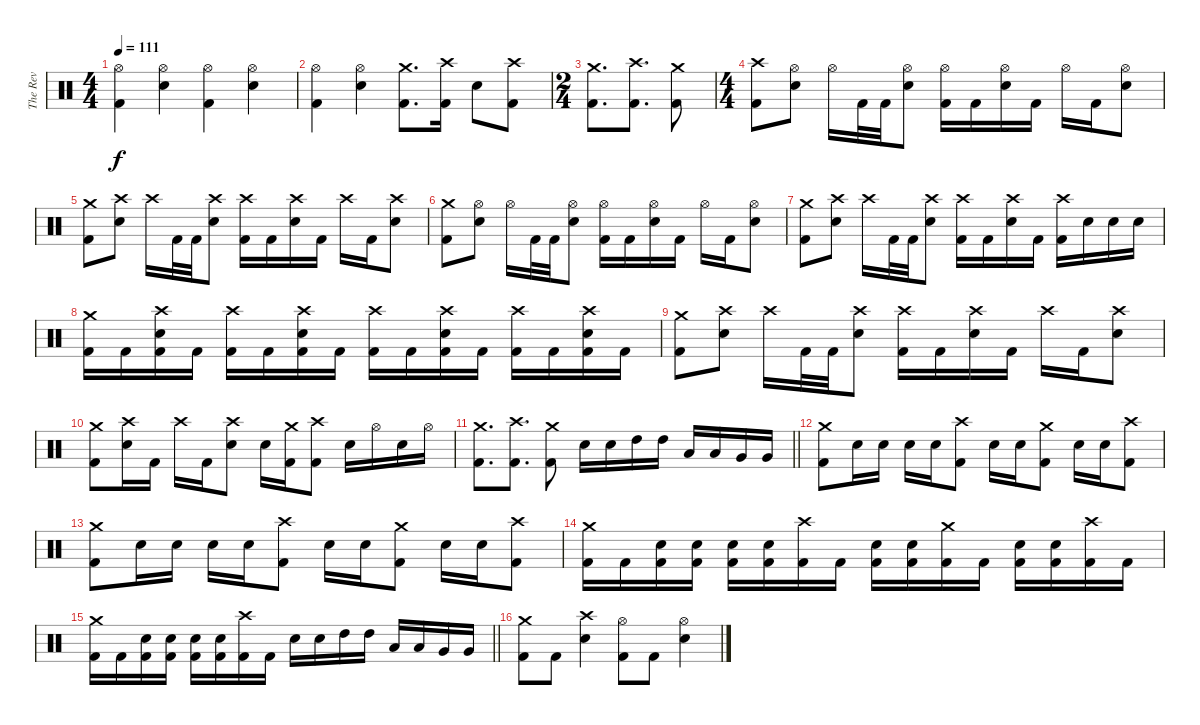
\track ("The Rev" "The Rev") {instrument percussion}
\staff {score}
\articulation defaults
\ts (4 4)
\tempo 111
\clef neutral
\ks c
("Hi-Hat (open)" "Kick (hit) 2").4{dy f} ("Hi-Hat (open)" "Snare (hit) 2").4 ("Hi-Hat (open)" "Kick (hit) 2").4 ("Hi-Hat (open)" "Snare (hit) 2").4 |
("Hi-Hat (open)" "Kick (hit) 2").4 ("Hi-Hat (open)" "Snare (hit) 2").4 ("Crash medium (hit)" "Kick (hit) 2").8{d} ("Crash high (hit)" "Kick (hit) 2").16 "Snare (hit) 2".8 ("Crash high (hit)" "Kick (hit) 2").8 |
\ts (2 4)
("Crash medium (hit)" "Kick (hit) 2").8{d} ("Crash high (hit)" "Kick (hit) 2").8{d} ("Crash medium (hit)" "Kick (hit) 2").8 |
\ts (4 4)
("Crash high (hit)" "Kick (hit) 2").8 ("Hi-Hat (open)" "Snare (hit) 2").8 "Hi-Hat (open)".16 "Kick (hit) 2".32 "Kick (hit) 2".32 ("Hi-Hat (open)" "Snare (hit) 2").8 ("Hi-Hat (open)" "Kick (hit) 2").16 "Kick (hit) 2".16 ("Hi-Hat (open)" "Snare (hit) 2").16 "Kick (hit) 2".16 "Hi-Hat (open)".16 "Kick (hit) 2".16 ("Hi-Hat (open)" "Snare (hit) 2").8 |
("Crash medium (hit)" "Kick (hit) 2").8 ("Crash high (hit)" "Snare (hit) 2").8 "Crash high (hit)".16 "Kick (hit) 2".32 "Kick (hit) 2".32 ("Crash high (hit)" "Snare (hit) 2").8 ("Crash high (hit)" "Kick (hit) 2").16 "Kick (hit) 2".16 ("Crash high (hit)" "Snare (hit) 2").16 "Kick (hit) 2".16 "Crash high (hit)".16 "Kick (hit) 2".16 ("Crash high (hit)" "Snare (hit) 2").8 |
("Crash medium (hit)" "Kick (hit) 2").8 ("Hi-Hat (open)" "Snare (hit) 2").8 "Hi-Hat (open)".16 "Kick (hit) 2".32 "Kick (hit) 2".32 ("Hi-Hat (open)" "Snare (hit) 2").8 ("Hi-Hat (open)" "Kick (hit) 2").16 "Kick (hit) 2".16 ("Hi-Hat (open)" "Snare (hit) 2").16 "Kick (hit) 2".16 "Hi-Hat (open)".16 "Kick (hit) 2".16 ("Hi-Hat (open)" "Snare (hit) 2").8 |
("Crash medium (hit)" "Kick (hit) 2").8 ("Crash high (hit)" "Snare (hit) 2").8 "Crash high (hit)".16 "Kick (hit) 2".32 "Kick (hit) 2".32 ("Crash high (hit)" "Snare (hit) 2").8 ("Crash high (hit)" "Kick (hit) 2").16 "Kick (hit) 2".16 ("Crash high (hit)" "Snare (hit) 2").16 "Kick (hit) 2".16 ("Crash high (hit)" "Kick (hit) 2").16 "Snare (hit) 2".16 "Snare (hit) 2".16 "Snare (hit) 2".16 |
("Crash medium (hit)" "Kick (hit) 2").16 "Kick (hit) 2".16 ("Crash high (hit)" "Snare (hit) 2" "Kick (hit) 2").16 "Kick (hit) 2".16 ("Crash high (hit)" "Kick (hit) 2").16 "Kick (hit) 2".16 ("Crash high (hit)" "Snare (hit) 2" "Kick (hit) 2").16 "Kick (hit) 2".16 ("Crash high (hit)" "Kick (hit) 2").16 "Kick (hit) 2".16 ("Crash high (hit)" "Snare (hit) 2" "Kick (hit) 2").16 "Kick (hit) 2".16 ("Crash high (hit)" "Kick (hit) 2").16 "Kick (hit) 2".16 ("Crash high (hit)" "Snare (hit) 2" "Kick (hit) 2").16 "Kick (hit) 2".16 |
("Crash medium (hit)" "Kick (hit) 2").8 ("Crash high (hit)" "Snare (hit) 2").8 "Crash high (hit)".16 "Kick (hit) 2".32 "Kick (hit) 2".32 ("Crash high (hit)" "Snare (hit) 2").8 ("Crash high (hit)" "Kick (hit) 2").16 "Kick (hit) 2".16 ("Crash high (hit)" "Snare (hit) 2").16 "Kick (hit) 2".16 "Crash high (hit)".16 "Kick (hit) 2".16 ("Crash high (hit)" "Snare (hit) 2").8 |
("Crash medium (hit)" "Kick (hit) 2").8 ("Crash high (hit)" "Snare (hit) 2").16 "Kick (hit) 2".16 "Crash high (hit)".16 "Kick (hit) 2".16 ("Crash high (hit)" "Snare (hit) 2").8 "Snare (hit) 2".16 ("Crash medium (hit)" "Kick (hit) 2").16 ("Crash high (hit)" "Kick (hit) 2").8 "Snare (hit) 2".16 "Hi-Hat (open)".16 "Snare (hit) 2".16 "Hi-Hat (open)".16 |
\barLineRight lightlight
("Crash medium (hit)" "Kick (hit) 2").8{d} ("Crash high (hit)" "Kick (hit) 2").8{d} ("Crash medium (hit)" "Kick (hit) 2").8 "Snare (hit) 2".16 "Snare (hit) 2".16 "High Tom (hit)".16 "High Tom (hit)".16 "Low Tom (hit)".16 "Low Tom (hit)".16 "Very Low Tom (hit)".16 "Very Low Tom (hit)".16 |
("Crash medium (hit)" "Kick (hit) 2").8 "Snare (hit) 2".16 "Snare (hit) 2".16 "Snare (hit) 2".16 "Snare (hit) 2".16 ("Crash high (hit)" "Kick (hit) 2").8 "Snare (hit) 2".16 "Snare (hit) 2".16 ("Crash medium (hit)" "Kick (hit) 2").8 "Snare (hit) 2".16 "Snare (hit) 2".16 ("Crash high (hit)" "Kick (hit) 2").8 |
("Crash medium (hit)" "Kick (hit) 2").8 "Snare (hit) 2".16 "Snare (hit) 2".16 "Snare (hit) 2".16 "Snare (hit) 2".16 ("Crash high (hit)" "Kick (hit) 2").8 "Snare (hit) 2".16 "Snare (hit) 2".16 ("Crash medium (hit)" "Kick (hit) 2").8 "Snare (hit) 2".16 "Snare (hit) 2".16 ("Crash high (hit)" "Kick (hit) 2").8 |
("Crash medium (hit)" "Kick (hit) 2").16 "Kick (hit) 2".16 ("Snare (hit) 2" "Kick (hit) 2").16 ("Snare (hit) 2" "Kick (hit) 2").16 ("Snare (hit) 2" "Kick (hit) 2").16 ("Snare (hit) 2" "Kick (hit) 2").16 ("Crash high (hit)" "Kick (hit) 2").16 "Kick (hit) 2".16 ("Snare (hit) 2" "Kick (hit) 2").16 ("Snare (hit) 2" "Kick (hit) 2").16 ("Crash medium (hit)" "Kick (hit) 2").16 "Kick (hit) 2".16 ("Snare (hit) 2" "Kick (hit) 2").16 ("Snare (hit) 2" "Kick (hit) 2").16 ("Crash high (hit)" "Kick (hit) 2").16 "Kick (hit) 2".16 |
\barLineRight lightlight
("Crash medium (hit)" "Kick (hit) 2").16 "Kick (hit) 2".16 ("Snare (hit) 2" "Kick (hit) 2").16 ("Snare (hit) 2" "Kick (hit) 2").16 ("Snare (hit) 2" "Kick (hit) 2").16 ("Snare (hit) 2" "Kick (hit) 2").16 ("Crash high (hit)" "Kick (hit) 2").16 "Kick (hit) 2".16 "Snare (hit) 2".16 "Snare (hit) 2".16 "High Tom (hit)".16 "High Tom (hit)".16 "Low Tom (hit)".16 "Low Tom (hit)".16 "Very Low Tom (hit)".16 "Very Low Tom (hit)".16 |
("Crash medium (hit)" "Kick (hit) 2").8 "Kick (hit) 2".8 ("Crash high (hit)" "Snare (hit) 2").4 ("Hi-Hat (open)" "Kick (hit) 2").8 "Kick (hit) 2".8 ("Hi-Hat (open)" "Snare (hit) 2").4
